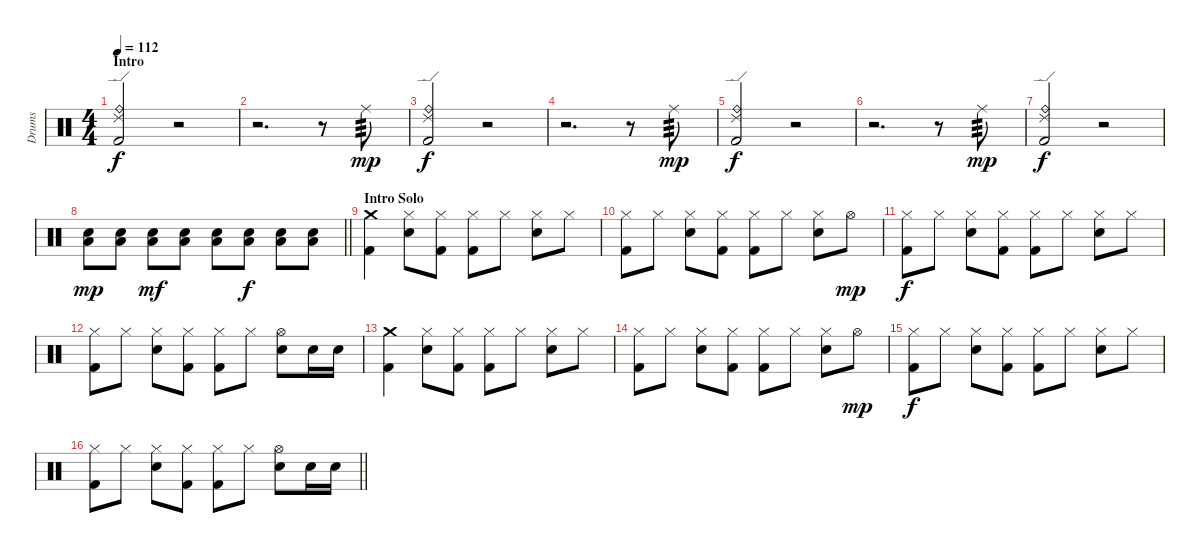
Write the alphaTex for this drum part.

\track ("Drums" "Drums") {instrument percussion}
\staff {score}
\articulation defaults
\ts (4 4)
\section ("" "Intro")
\tempo 112
\clef neutral
\ks c
("Ride (edge) 2" "Ride (bell)" "Kick (hit) 2").2{dy f} r.2 |
r.2{d} r.8 "Ride (middle)".8{tp 3 dy mp} |
("Ride (edge) 2" "Ride (bell)" "Kick (hit) 2").2{dy f} r.2 |
r.2{d} r.8 "Ride (middle)".8{tp 3 dy mp} |
("Ride (edge) 2" "Ride (bell)" "Kick (hit) 2").2{dy f} r.2 |
r.2{d} r.8 "Ride (middle)".8{tp 3 dy mp} |
("Ride (edge) 2" "Ride (bell)" "Kick (hit) 2").2{dy f} r.2 |
\barLineRight lightlight
("Low Floor Tom (hit)" "Snare (hit) 2").8{dy mp} ("Low Floor Tom (hit)" "Snare (hit) 2").8 ("Low Floor Tom (hit)" "Snare (hit) 2").8{dy mf} ("Low Floor Tom (hit)" "Snare (hit) 2").8 ("Low Floor Tom (hit)" "Snare (hit) 2").8 ("Low Floor Tom (hit)" "Snare (hit) 2").8{dy f} ("Low Floor Tom (hit)" "Snare (hit) 2").8 ("Low Floor Tom (hit)" "Snare (hit) 2").8 |
\section ("" "Intro Solo")
("Crash medium (hit)" "Kick (hit) 2").4 ("Hi-Hat (closed)" "Snare (hit) 2").8 ("Hi-Hat (closed)" "Kick (hit) 2").8 ("Hi-Hat (closed)" "Kick (hit) 2").8 "Hi-Hat (closed)".8 ("Hi-Hat (closed)" "Snare (hit) 2").8 "Hi-Hat (closed)".8 |
("Hi-Hat (closed)" "Kick (hit) 2").8 "Hi-Hat (closed)".8 ("Hi-Hat (closed)" "Snare (hit) 2").8 ("Hi-Hat (closed)" "Kick (hit) 2").8 ("Hi-Hat (closed)" "Kick (hit) 2").8 "Hi-Hat (closed)".8 ("Hi-Hat (closed)" "Snare (hit) 2").8 "Hi-Hat (open)".8{dy mp} |
("Hi-Hat (closed)" "Kick (hit) 2").8{dy f} "Hi-Hat (closed)".8 ("Hi-Hat (closed)" "Snare (hit) 2").8 ("Hi-Hat (closed)" "Kick (hit) 2").8 ("Hi-Hat (closed)" "Kick (hit) 2").8 "Hi-Hat (closed)".8 ("Hi-Hat (closed)" "Snare (hit) 2").8 "Hi-Hat (closed)".8 |
("Hi-Hat (closed)" "Kick (hit) 2").8 "Hi-Hat (closed)".8 ("Hi-Hat (closed)" "Snare (hit) 2").8 ("Hi-Hat (closed)" "Kick (hit) 2").8 ("Hi-Hat (closed)" "Kick (hit) 2").8 "Hi-Hat (closed)".8 ("Hi-Hat (open)" "Snare (hit) 2").8 "Snare (hit) 2".16 "Snare (hit) 2".16 |
("Crash medium (hit)" "Kick (hit) 2").4 ("Hi-Hat (closed)" "Snare (hit) 2").8 ("Hi-Hat (closed)" "Kick (hit) 2").8 ("Hi-Hat (closed)" "Kick (hit) 2").8 "Hi-Hat (closed)".8 ("Hi-Hat (closed)" "Snare (hit) 2").8 "Hi-Hat (closed)".8 |
("Hi-Hat (closed)" "Kick (hit) 2").8 "Hi-Hat (closed)".8 ("Hi-Hat (closed)" "Snare (hit) 2").8 ("Hi-Hat (closed)" "Kick (hit) 2").8 ("Hi-Hat (closed)" "Kick (hit) 2").8 "Hi-Hat (closed)".8 ("Hi-Hat (closed)" "Snare (hit) 2").8 "Hi-Hat (open)".8{dy mp} |
("Hi-Hat (closed)" "Kick (hit) 2").8{dy f} "Hi-Hat (closed)".8 ("Hi-Hat (closed)" "Snare (hit) 2").8 ("Hi-Hat (closed)" "Kick (hit) 2").8 ("Hi-Hat (closed)" "Kick (hit) 2").8 "Hi-Hat (closed)".8 ("Hi-Hat (closed)" "Snare (hit) 2").8 "Hi-Hat (closed)".8 |
\barLineRight lightlight
("Hi-Hat (closed)" "Kick (hit) 2").8 "Hi-Hat (closed)".8 ("Hi-Hat (closed)" "Snare (hit) 2").8 ("Hi-Hat (closed)" "Kick (hit) 2").8 ("Hi-Hat (closed)" "Kick (hit) 2").8 "Hi-Hat (closed)".8 ("Hi-Hat (open)" "Snare (hit) 2").8 "Snare (hit) 2".16 "Snare (hit) 2".16
